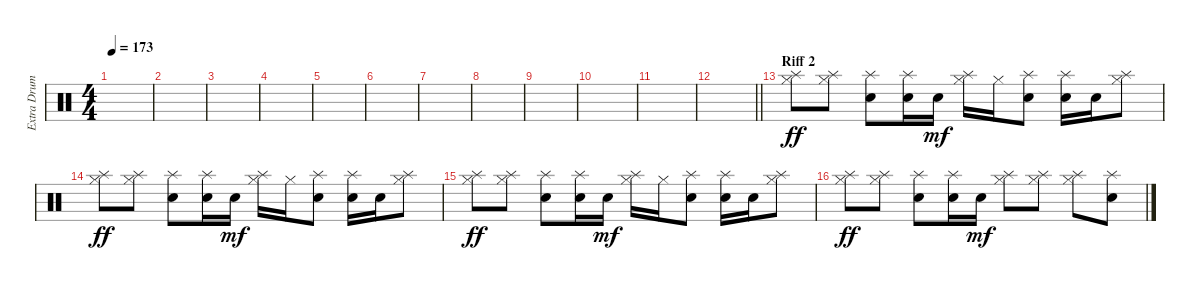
\track ("Extra Drums" "Extra Drum") {instrument percussion}
\staff {score}
\articulation defaults
\ts (4 4)
\tempo 173
\clef neutral
\ks c
|
|
|
|
|
|
|
|
|
|
|
\barLineRight lightlight
|
\section ("" "Riff 2")
("Hi-Hat (closed)" "Splash (hit)").8{dy ff} ("Hi-Hat (closed)" "Splash (hit)").8 ("Electric Snare (hit)" "Splash (hit)").8 ("Snare (hit) 2" "Splash (hit)").16 "Snare (hit) 2".16{dy mf} ("Hi-Hat (closed)" "Splash (hit)").16 "Hi-Hat (closed)".16 ("Electric Snare (hit)" "Splash (hit)").8 ("Electric Snare (hit)" "Splash (hit)").16 "Snare (hit) 2".16 ("Hi-Hat (closed)" "Splash (hit)").8 |
("Hi-Hat (closed)" "Splash (hit)").8{dy ff} ("Hi-Hat (closed)" "Splash (hit)").8 ("Electric Snare (hit)" "Splash (hit)").8 ("Snare (hit) 2" "Splash (hit)").16 "Snare (hit) 2".16{dy mf} ("Hi-Hat (closed)" "Splash (hit)").16 "Hi-Hat (closed)".16 ("Electric Snare (hit)" "Splash (hit)").8 ("Electric Snare (hit)" "Splash (hit)").16 "Snare (hit) 2".16 ("Hi-Hat (closed)" "Splash (hit)").8 |
("Hi-Hat (closed)" "Splash (hit)").8{dy ff} ("Hi-Hat (closed)" "Splash (hit)").8 ("Electric Snare (hit)" "Splash (hit)").8 ("Snare (hit) 2" "Splash (hit)").16 "Snare (hit) 2".16{dy mf} ("Hi-Hat (closed)" "Splash (hit)").16 "Hi-Hat (closed)".16 ("Electric Snare (hit)" "Splash (hit)").8 ("Electric Snare (hit)" "Splash (hit)").16 "Snare (hit) 2".16 ("Hi-Hat (closed)" "Splash (hit)").8 |
("Hi-Hat (closed)" "Splash (hit)").8{dy ff} ("Hi-Hat (closed)" "Splash (hit)").8 ("Electric Snare (hit)" "Splash (hit)").8 ("Snare (hit) 2" "Splash (hit)").16 "Snare (hit) 2".16{dy mf} ("Hi-Hat (closed)" "Splash (hit)").8 ("Hi-Hat (closed)" "Splash (hit)").8 ("Hi-Hat (closed)" "Splash (hit)").8 ("Snare (hit) 2" "Splash (hit)").8
